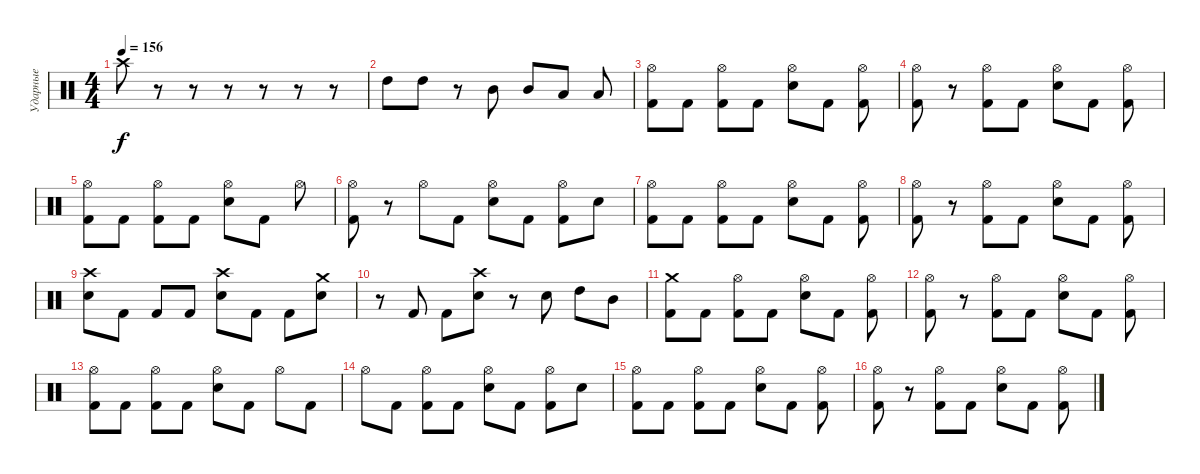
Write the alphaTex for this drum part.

\track ("Ударные" "Ударные") {instrument percussion}
\staff {score}
\articulation defaults
\ts (4 4)
\tempo 156
\clef neutral
\ks c "Crash high (hit)".8{dy f}
r.8 r.8 r.8 r.8 r.8 r.8 |
"High Tom (hit)".8 "High Tom (hit)".8 r.8 "Mid Tom (hit)".8 "Mid Tom (hit)".8 "Low Tom (hit)".8 "Low Tom (hit)".8 |
("Hi-Hat (open)" "Kick (hit) 2").8 "Kick (hit) 2".8 ("Hi-Hat (open)" "Kick (hit) 2").8 "Kick (hit) 2".8 ("Hi-Hat (open)" "Electric Snare (hit)").8 "Kick (hit) 2".8 ("Hi-Hat (open)" "Kick (hit) 2").8 |
("Hi-Hat (open)" "Kick (hit) 2").8 r.8 ("Hi-Hat (open)" "Kick (hit) 2").8 "Kick (hit) 2".8 ("Hi-Hat (open)" "Electric Snare (hit)").8 "Kick (hit) 2".8 ("Hi-Hat (open)" "Kick (hit) 2").8 |
("Hi-Hat (open)" "Kick (hit) 2").8 "Kick (hit) 2".8 ("Hi-Hat (open)" "Kick (hit) 2").8 "Kick (hit) 2".8 ("Hi-Hat (open)" "Electric Snare (hit)").8 "Kick (hit) 2".8 "Hi-Hat (open)".8 |
("Hi-Hat (open)" "Kick (hit) 2").8 r.8 "Hi-Hat (open)".8 "Kick (hit) 2".8 ("Hi-Hat (open)" "Electric Snare (hit)").8 "Kick (hit) 2".8 ("Hi-Hat (open)" "Kick (hit) 2").8 "Electric Snare (hit)".8 |
("Hi-Hat (open)" "Kick (hit) 2").8 "Kick (hit) 2".8 ("Hi-Hat (open)" "Kick (hit) 2").8 "Kick (hit) 2".8 ("Hi-Hat (open)" "Electric Snare (hit)").8 "Kick (hit) 2".8 ("Hi-Hat (open)" "Kick (hit) 2").8 |
("Hi-Hat (open)" "Kick (hit) 2").8 r.8 ("Hi-Hat (open)" "Kick (hit) 2").8 "Kick (hit) 2".8 ("Hi-Hat (open)" "Electric Snare (hit)").8 "Kick (hit) 2".8 ("Hi-Hat (open)" "Kick (hit) 2").8 |
("Crash high (hit)" "Electric Snare (hit)").8 "Kick (hit) 2".8 "Kick (hit) 2".8 "Kick (hit) 2".8 ("Crash high (hit)" "Electric Snare (hit)").8 "Kick (hit) 2".8 "Kick (hit) 2".8 ("Crash medium (hit)" "Electric Snare (hit)").8 |
r.8 "Kick (hit) 2".8 "Kick (hit) 2".8 ("Crash high (hit)" "Electric Snare (hit)").8 r.8 "Electric Snare (hit)".8 "High Tom (hit)".8 "Mid Tom (hit)".8 |
("Crash medium (hit)" "Kick (hit) 2").8 "Kick (hit) 2".8 ("Hi-Hat (open)" "Kick (hit) 2").8 "Kick (hit) 2".8 ("Hi-Hat (open)" "Electric Snare (hit)").8 "Kick (hit) 2".8 ("Hi-Hat (open)" "Kick (hit) 2").8 |
("Hi-Hat (open)" "Kick (hit) 2").8 r.8 ("Hi-Hat (open)" "Kick (hit) 2").8 "Kick (hit) 2".8 ("Hi-Hat (open)" "Electric Snare (hit)").8 "Kick (hit) 2".8 ("Hi-Hat (open)" "Kick (hit) 2").8 |
("Hi-Hat (open)" "Kick (hit) 2").8 "Kick (hit) 2".8 ("Hi-Hat (open)" "Kick (hit) 2").8 "Kick (hit) 2".8 ("Hi-Hat (open)" "Electric Snare (hit)").8 "Kick (hit) 2".8 "Hi-Hat (open)".8 "Kick (hit) 2".8 |
"Hi-Hat (open)".8 "Kick (hit) 2".8 ("Hi-Hat (open)" "Kick (hit) 2").8 "Kick (hit) 2".8 ("Hi-Hat (open)" "Electric Snare (hit)").8 "Kick (hit) 2".8 ("Hi-Hat (open)" "Kick (hit) 2").8 "Electric Snare (hit)".8 |
("Hi-Hat (open)" "Kick (hit) 2").8 "Kick (hit) 2".8 ("Hi-Hat (open)" "Kick (hit) 2").8 "Kick (hit) 2".8 ("Hi-Hat (open)" "Electric Snare (hit)").8 "Kick (hit) 2".8 ("Hi-Hat (open)" "Kick (hit) 2").8 |
("Hi-Hat (open)" "Kick (hit) 2").8 r.8 ("Hi-Hat (open)" "Kick (hit) 2").8 "Kick (hit) 2".8 ("Hi-Hat (open)" "Electric Snare (hit)").8 "Kick (hit) 2".8 ("Hi-Hat (open)" "Kick (hit) 2").8
